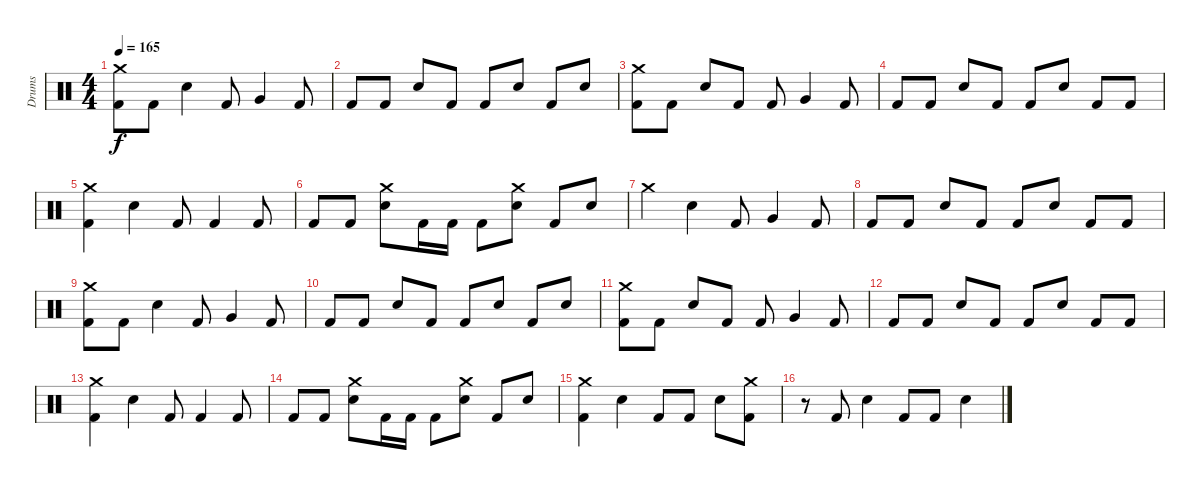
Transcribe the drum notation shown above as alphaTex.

\track ("Drums" "Drums") {instrument percussion}
\staff {score}
\articulation defaults
\ts (4 4)
\tempo 165
\clef neutral
\ks c
("Crash medium (hit)" "Kick (hit) 2").8{dy f} "Kick (hit) 2".8 "Snare (hit) 2".4 "Kick (hit) 2".8 "Very Low Tom (hit)".4 "Kick (hit) 2".8 |
"Kick (hit) 2".8 "Kick (hit) 2".8 "Snare (hit) 2".8 "Kick (hit) 2".8 "Kick (hit) 2".8 "Snare (hit) 2".8 "Kick (hit) 2".8 "Snare (hit) 2".8 |
("Crash medium (hit)" "Kick (hit) 2").8 "Kick (hit) 2".8 "Snare (hit) 2".8 "Kick (hit) 2".8 "Kick (hit) 2".8 "Very Low Tom (hit)".4 "Kick (hit) 2".8 |
"Kick (hit) 2".8 "Kick (hit) 2".8 "Snare (hit) 2".8 "Kick (hit) 2".8 "Kick (hit) 2".8 "Snare (hit) 2".8 "Kick (hit) 2".8 "Kick (hit) 2".8 |
("Crash medium (hit)" "Kick (hit) 2").4 "Snare (hit) 2".4 "Kick (hit) 2".8 "Kick (hit) 2".4 "Kick (hit) 2".8 |
"Kick (hit) 2".8 "Kick (hit) 2".8 ("Crash medium (hit)" "Snare (hit) 2").8 "Kick (hit) 2".16 "Kick (hit) 2".16 "Kick (hit) 2".8 ("Crash medium (hit)" "Snare (hit) 2").8 "Kick (hit) 2".8 "Snare (hit) 2".8 |
"Crash medium (hit)".4 "Snare (hit) 2".4 "Kick (hit) 2".8 "Very Low Tom (hit)".4 "Kick (hit) 2".8 |
"Kick (hit) 2".8 "Kick (hit) 2".8 "Snare (hit) 2".8 "Kick (hit) 2".8 "Kick (hit) 2".8 "Snare (hit) 2".8 "Kick (hit) 2".8 "Kick (hit) 2".8 |
("Crash medium (hit)" "Kick (hit) 2").8 "Kick (hit) 2".8 "Snare (hit) 2".4 "Kick (hit) 2".8 "Very Low Tom (hit)".4 "Kick (hit) 2".8 |
"Kick (hit) 2".8 "Kick (hit) 2".8 "Snare (hit) 2".8 "Kick (hit) 2".8 "Kick (hit) 2".8 "Snare (hit) 2".8 "Kick (hit) 2".8 "Snare (hit) 2".8 |
("Crash medium (hit)" "Kick (hit) 2").8 "Kick (hit) 2".8 "Snare (hit) 2".8 "Kick (hit) 2".8 "Kick (hit) 2".8 "Very Low Tom (hit)".4 "Kick (hit) 2".8 |
"Kick (hit) 2".8 "Kick (hit) 2".8 "Snare (hit) 2".8 "Kick (hit) 2".8 "Kick (hit) 2".8 "Snare (hit) 2".8 "Kick (hit) 2".8 "Kick (hit) 2".8 |
("Crash medium (hit)" "Kick (hit) 2").4 "Snare (hit) 2".4 "Kick (hit) 2".8 "Kick (hit) 2".4 "Kick (hit) 2".8 |
"Kick (hit) 2".8 "Kick (hit) 2".8 ("Crash medium (hit)" "Snare (hit) 2").8 "Kick (hit) 2".16 "Kick (hit) 2".16 "Kick (hit) 2".8 ("Crash medium (hit)" "Snare (hit) 2").8 "Kick (hit) 2".8 "Snare (hit) 2".8 |
("Crash medium (hit)" "Kick (hit) 2").4 "Snare (hit) 2".4 "Kick (hit) 2".8 "Kick (hit) 2".8 "Snare (hit) 2".8 ("Crash medium (hit)" "Kick (hit) 2").8 |
r.8 "Kick (hit) 2".8 "Snare (hit) 2".4 "Kick (hit) 2".8 "Kick (hit) 2".8 "Snare (hit) 2".4
